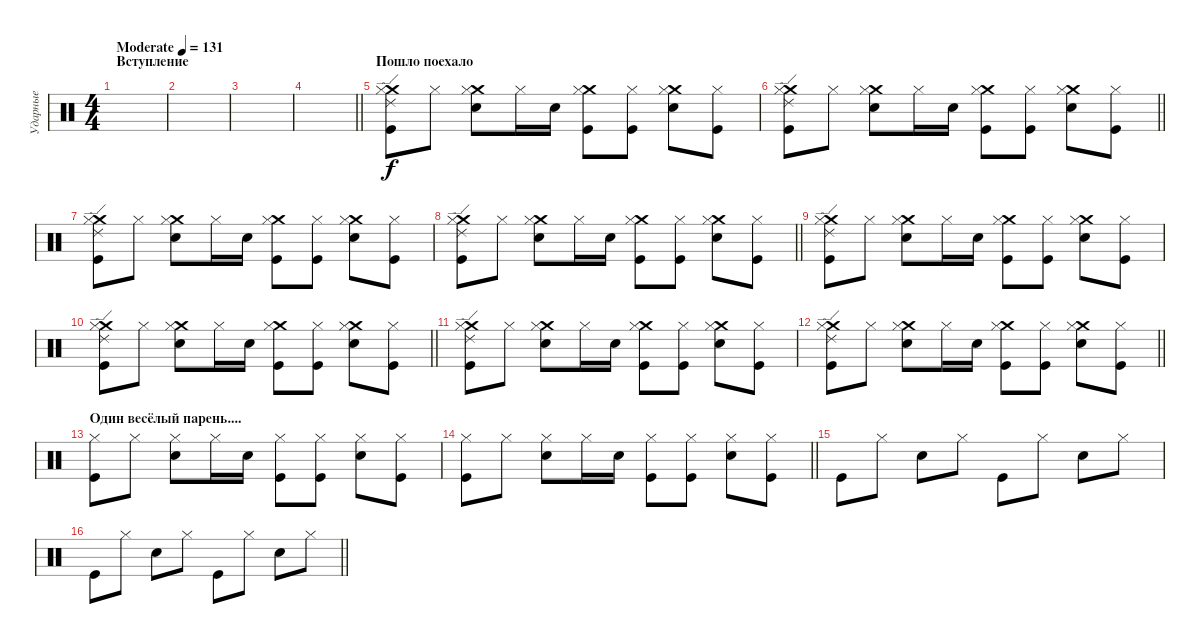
\track ("Ударные" "Ударные") {instrument percussion}
\staff {score}
\articulation defaults
\ts (4 4)
\section ("" "Вступление ")
\tempo (131 "Moderate")
\clef neutral
\ks c
|
|
|
\barLineRight lightlight
|
\section ("" "Пошло поехало")
("Crash medium (hit)" "Kick (hit)" "Hi-Hat (closed)" "Ride (edge) 2").8 "Hi-Hat (closed)".8 ("Crash medium (hit)" "Snare (hit) 2" "Hi-Hat (closed)").8 "Hi-Hat (closed)".16 "Snare (hit) 2".16 ("Crash medium (hit)" "Kick (hit)" "Hi-Hat (closed)").8 ("Kick (hit)" "Hi-Hat (closed)").8 ("Crash medium (hit)" "Snare (hit) 2" "Hi-Hat (closed)").8 ("Kick (hit)" "Hi-Hat (closed)").8 |
\barLineRight lightlight
("Crash medium (hit)" "Kick (hit)" "Hi-Hat (closed)" "Ride (edge) 2").8 "Hi-Hat (closed)".8 ("Crash medium (hit)" "Snare (hit) 2" "Hi-Hat (closed)").8 "Hi-Hat (closed)".16 "Snare (hit) 2".16 ("Crash medium (hit)" "Kick (hit)" "Hi-Hat (closed)").8 ("Kick (hit)" "Hi-Hat (closed)").8 ("Crash medium (hit)" "Snare (hit) 2" "Hi-Hat (closed)").8 ("Kick (hit)" "Hi-Hat (closed)").8 |
("Crash medium (hit)" "Kick (hit)" "Hi-Hat (closed)" "Ride (edge) 2").8 "Hi-Hat (closed)".8 ("Crash medium (hit)" "Snare (hit) 2" "Hi-Hat (closed)").8 "Hi-Hat (closed)".16 "Snare (hit) 2".16 ("Crash medium (hit)" "Kick (hit)" "Hi-Hat (closed)").8 ("Kick (hit)" "Hi-Hat (closed)").8 ("Crash medium (hit)" "Snare (hit) 2" "Hi-Hat (closed)").8 ("Kick (hit)" "Hi-Hat (closed)").8 |
\barLineRight lightlight
("Crash medium (hit)" "Kick (hit)" "Hi-Hat (closed)" "Ride (edge) 2").8 "Hi-Hat (closed)".8 ("Crash medium (hit)" "Snare (hit) 2" "Hi-Hat (closed)").8 "Hi-Hat (closed)".16 "Snare (hit) 2".16 ("Crash medium (hit)" "Kick (hit)" "Hi-Hat (closed)").8 ("Kick (hit)" "Hi-Hat (closed)").8 ("Crash medium (hit)" "Snare (hit) 2" "Hi-Hat (closed)").8 ("Kick (hit)" "Hi-Hat (closed)").8 |
("Crash medium (hit)" "Kick (hit)" "Hi-Hat (closed)" "Ride (edge) 2").8 "Hi-Hat (closed)".8 ("Crash medium (hit)" "Snare (hit) 2" "Hi-Hat (closed)").8 "Hi-Hat (closed)".16 "Snare (hit) 2".16 ("Crash medium (hit)" "Kick (hit)" "Hi-Hat (closed)").8 ("Kick (hit)" "Hi-Hat (closed)").8 ("Crash medium (hit)" "Snare (hit) 2" "Hi-Hat (closed)").8 ("Kick (hit)" "Hi-Hat (closed)").8 |
\barLineRight lightlight
("Crash medium (hit)" "Kick (hit)" "Hi-Hat (closed)" "Ride (edge) 2").8 "Hi-Hat (closed)".8 ("Crash medium (hit)" "Snare (hit) 2" "Hi-Hat (closed)").8 "Hi-Hat (closed)".16 "Snare (hit) 2".16 ("Crash medium (hit)" "Kick (hit)" "Hi-Hat (closed)").8 ("Kick (hit)" "Hi-Hat (closed)").8 ("Crash medium (hit)" "Snare (hit) 2" "Hi-Hat (closed)").8 ("Kick (hit)" "Hi-Hat (closed)").8 |
("Crash medium (hit)" "Kick (hit)" "Hi-Hat (closed)" "Ride (edge) 2").8 "Hi-Hat (closed)".8 ("Crash medium (hit)" "Snare (hit) 2" "Hi-Hat (closed)").8 "Hi-Hat (closed)".16 "Snare (hit) 2".16 ("Crash medium (hit)" "Kick (hit)" "Hi-Hat (closed)").8 ("Kick (hit)" "Hi-Hat (closed)").8 ("Crash medium (hit)" "Snare (hit) 2" "Hi-Hat (closed)").8 ("Kick (hit)" "Hi-Hat (closed)").8 |
\barLineRight lightlight
("Crash medium (hit)" "Kick (hit)" "Hi-Hat (closed)" "Ride (edge) 2").8 "Hi-Hat (closed)".8 ("Crash medium (hit)" "Snare (hit) 2" "Hi-Hat (closed)").8 "Hi-Hat (closed)".16 "Snare (hit) 2".16 ("Crash medium (hit)" "Kick (hit)" "Hi-Hat (closed)").8 ("Kick (hit)" "Hi-Hat (closed)").8 ("Crash medium (hit)" "Snare (hit) 2" "Hi-Hat (closed)").8 ("Kick (hit)" "Hi-Hat (closed)").8 |
\section ("" "Один весёлый парень....")
("Kick (hit)" "Hi-Hat (closed)").8 "Hi-Hat (closed)".8 ("Snare (hit) 2" "Hi-Hat (closed)").8 "Hi-Hat (closed)".16 "Snare (hit) 2".16 ("Kick (hit)" "Hi-Hat (closed)").8 ("Kick (hit)" "Hi-Hat (closed)").8 ("Snare (hit) 2" "Hi-Hat (closed)").8 ("Kick (hit)" "Hi-Hat (closed)").8 |
\barLineRight lightlight
("Kick (hit)" "Hi-Hat (closed)").8 "Hi-Hat (closed)".8 ("Snare (hit) 2" "Hi-Hat (closed)").8 "Hi-Hat (closed)".16 "Snare (hit) 2".16 ("Kick (hit)" "Hi-Hat (closed)").8 ("Kick (hit)" "Hi-Hat (closed)").8 ("Snare (hit) 2" "Hi-Hat (closed)").8 ("Kick (hit)" "Hi-Hat (closed)").8 |
"Kick (hit)".8 "Hi-Hat (closed)".8 "Snare (hit) 2".8 "Hi-Hat (closed)".8 "Kick (hit)".8 "Hi-Hat (closed)".8 "Snare (hit) 2".8 "Hi-Hat (closed)".8 |
\barLineRight lightlight "Kick (hit)".8 "Hi-Hat (closed)".8 "Snare (hit) 2".8 "Hi-Hat (closed)".8 "Kick (hit)".8 "Hi-Hat (closed)".8 "Snare (hit) 2".8 "Hi-Hat (closed)".8
